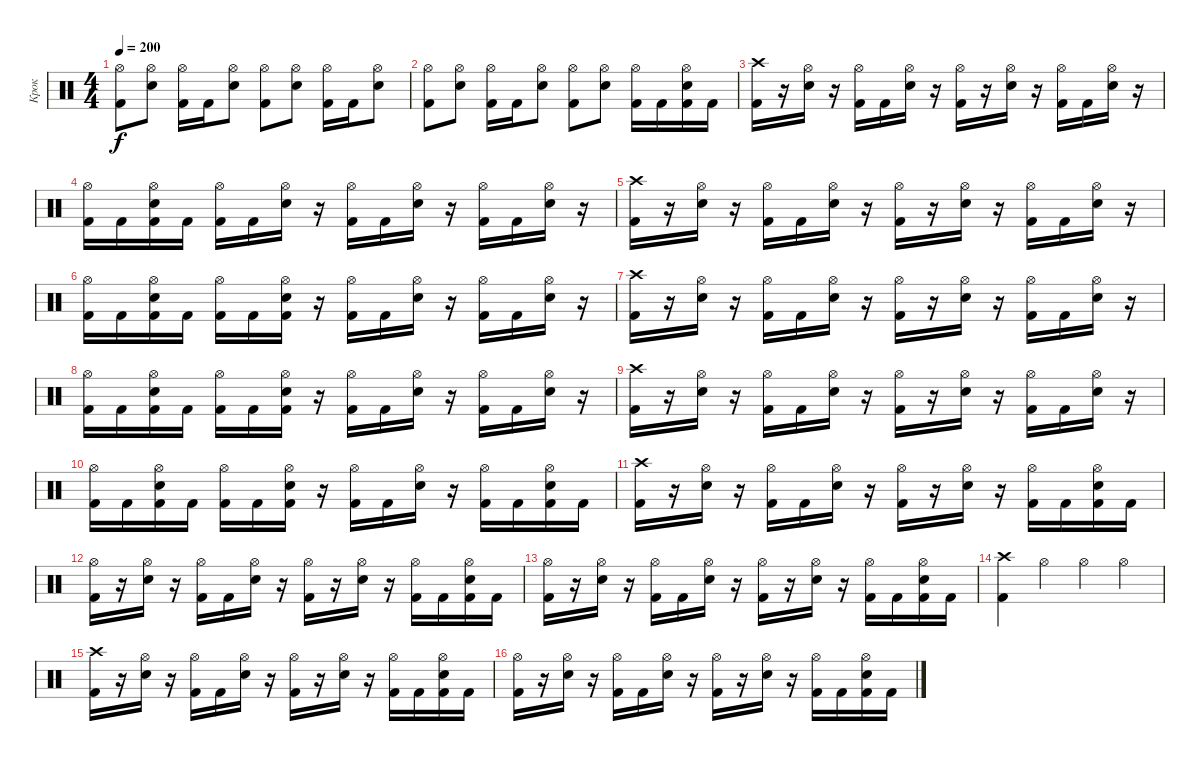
\track ("Крок" "Крок") {instrument percussion}
\staff {score}
\articulation defaults
\ts (4 4)
\tempo 200
\clef neutral
\ks c
("Hi-Hat (open)" "Kick (hit) 2").8{dy f} ("Hi-Hat (open)" "Electric Snare (hit)").8 ("Hi-Hat (open)" "Kick (hit) 2").16 "Kick (hit) 2".16 ("Hi-Hat (open)" "Electric Snare (hit)").8 ("Hi-Hat (open)" "Kick (hit) 2").8 ("Hi-Hat (open)" "Electric Snare (hit)").8 ("Hi-Hat (open)" "Kick (hit) 2").16 "Kick (hit) 2".16 ("Hi-Hat (open)" "Electric Snare (hit)").8 |
("Hi-Hat (open)" "Kick (hit) 2").8 ("Hi-Hat (open)" "Electric Snare (hit)").8 ("Hi-Hat (open)" "Kick (hit) 2").16 "Kick (hit) 2".16 ("Hi-Hat (open)" "Electric Snare (hit)").8 ("Hi-Hat (open)" "Kick (hit) 2").8 ("Hi-Hat (open)" "Electric Snare (hit)").8 ("Hi-Hat (open)" "Kick (hit) 2").16 "Kick (hit) 2".16 ("Hi-Hat (open)" "Kick (hit) 2" "Electric Snare (hit)").16 "Kick (hit) 2".16 |
("Kick (hit) 2" "Crash high (hit)").16 r.16 ("Electric Snare (hit)" "Hi-Hat (open)").16 r.16 ("Kick (hit) 2" "Hi-Hat (open)").16 "Kick (hit) 2".16 ("Electric Snare (hit)" "Hi-Hat (open)").16 r.16 ("Kick (hit) 2" "Hi-Hat (open)").16 r.16 ("Electric Snare (hit)" "Hi-Hat (open)").16 r.16 ("Kick (hit) 2" "Hi-Hat (open)").16 "Kick (hit) 2".16 ("Electric Snare (hit)" "Hi-Hat (open)").16 r.16 |
("Kick (hit) 2" "Hi-Hat (open)").16 "Kick (hit) 2".16 ("Kick (hit) 2" "Electric Snare (hit)" "Hi-Hat (open)").16 "Kick (hit) 2".16 ("Kick (hit) 2" "Hi-Hat (open)").16 "Kick (hit) 2".16 ("Electric Snare (hit)" "Hi-Hat (open)").16 r.16 ("Kick (hit) 2" "Hi-Hat (open)").16 "Kick (hit) 2".16 ("Electric Snare (hit)" "Hi-Hat (open)").16 r.16 ("Kick (hit) 2" "Hi-Hat (open)").16 "Kick (hit) 2".16 ("Electric Snare (hit)" "Hi-Hat (open)").16 r.16 |
("Kick (hit) 2" "Crash high (hit)").16 r.16 ("Electric Snare (hit)" "Hi-Hat (open)").16 r.16 ("Kick (hit) 2" "Hi-Hat (open)").16 "Kick (hit) 2".16 ("Electric Snare (hit)" "Hi-Hat (open)").16 r.16 ("Kick (hit) 2" "Hi-Hat (open)").16 r.16 ("Electric Snare (hit)" "Hi-Hat (open)").16 r.16 ("Kick (hit) 2" "Hi-Hat (open)").16 "Kick (hit) 2".16 ("Electric Snare (hit)" "Hi-Hat (open)").16 r.16 |
("Kick (hit) 2" "Hi-Hat (open)").16 "Kick (hit) 2".16 ("Kick (hit) 2" "Electric Snare (hit)" "Hi-Hat (open)").16 "Kick (hit) 2".16 ("Kick (hit) 2" "Hi-Hat (open)").16 "Kick (hit) 2".16 ("Kick (hit) 2" "Electric Snare (hit)" "Hi-Hat (open)").16 r.16 ("Kick (hit) 2" "Hi-Hat (open)").16 "Kick (hit) 2".16 ("Electric Snare (hit)" "Hi-Hat (open)").16 r.16 ("Kick (hit) 2" "Hi-Hat (open)").16 "Kick (hit) 2".16 ("Electric Snare (hit)" "Hi-Hat (open)").16 r.16 |
("Kick (hit) 2" "Crash high (hit)").16 r.16 ("Electric Snare (hit)" "Hi-Hat (open)").16 r.16 ("Kick (hit) 2" "Hi-Hat (open)").16 "Kick (hit) 2".16 ("Electric Snare (hit)" "Hi-Hat (open)").16 r.16 ("Kick (hit) 2" "Hi-Hat (open)").16 r.16 ("Electric Snare (hit)" "Hi-Hat (open)").16 r.16 ("Kick (hit) 2" "Hi-Hat (open)").16 "Kick (hit) 2".16 ("Electric Snare (hit)" "Hi-Hat (open)").16 r.16 |
("Kick (hit) 2" "Hi-Hat (open)").16 "Kick (hit) 2".16 ("Kick (hit) 2" "Electric Snare (hit)" "Hi-Hat (open)").16 "Kick (hit) 2".16 ("Kick (hit) 2" "Hi-Hat (open)").16 "Kick (hit) 2".16 ("Kick (hit) 2" "Electric Snare (hit)" "Hi-Hat (open)").16 r.16 ("Kick (hit) 2" "Hi-Hat (open)").16 "Kick (hit) 2".16 ("Electric Snare (hit)" "Hi-Hat (open)").16 r.16 ("Kick (hit) 2" "Hi-Hat (open)").16 "Kick (hit) 2".16 ("Electric Snare (hit)" "Hi-Hat (open)").16 r.16 |
("Kick (hit) 2" "Crash high (hit)").16 r.16 ("Electric Snare (hit)" "Hi-Hat (open)").16 r.16 ("Kick (hit) 2" "Hi-Hat (open)").16 "Kick (hit) 2".16 ("Electric Snare (hit)" "Hi-Hat (open)").16 r.16 ("Kick (hit) 2" "Hi-Hat (open)").16 r.16 ("Electric Snare (hit)" "Hi-Hat (open)").16 r.16 ("Kick (hit) 2" "Hi-Hat (open)").16 "Kick (hit) 2".16 ("Electric Snare (hit)" "Hi-Hat (open)").16 r.16 |
("Kick (hit) 2" "Hi-Hat (open)").16 "Kick (hit) 2".16 ("Kick (hit) 2" "Electric Snare (hit)" "Hi-Hat (open)").16 "Kick (hit) 2".16 ("Kick (hit) 2" "Hi-Hat (open)").16 "Kick (hit) 2".16 ("Kick (hit) 2" "Electric Snare (hit)" "Hi-Hat (open)").16 r.16 ("Kick (hit) 2" "Hi-Hat (open)").16 "Kick (hit) 2".16 ("Electric Snare (hit)" "Hi-Hat (open)").16 r.16 ("Kick (hit) 2" "Hi-Hat (open)").16 "Kick (hit) 2".16 ("Kick (hit) 2" "Electric Snare (hit)" "Hi-Hat (open)").16 "Kick (hit) 2".16 |
("Kick (hit) 2" "Crash high (hit)").16 r.16 ("Electric Snare (hit)" "Hi-Hat (open)").16 r.16 ("Kick (hit) 2" "Hi-Hat (open)").16 "Kick (hit) 2".16 ("Electric Snare (hit)" "Hi-Hat (open)").16 r.16 ("Kick (hit) 2" "Hi-Hat (open)").16 r.16 ("Electric Snare (hit)" "Hi-Hat (open)").16 r.16 ("Kick (hit) 2" "Hi-Hat (open)").16 "Kick (hit) 2".16 ("Kick (hit) 2" "Electric Snare (hit)" "Hi-Hat (open)").16 "Kick (hit) 2".16 |
("Kick (hit) 2" "Hi-Hat (open)").16 r.16 ("Electric Snare (hit)" "Hi-Hat (open)").16 r.16 ("Kick (hit) 2" "Hi-Hat (open)").16 "Kick (hit) 2".16 ("Electric Snare (hit)" "Hi-Hat (open)").16 r.16 ("Kick (hit) 2" "Hi-Hat (open)").16 r.16 ("Electric Snare (hit)" "Hi-Hat (open)").16 r.16 ("Kick (hit) 2" "Hi-Hat (open)").16 "Kick (hit) 2".16 ("Kick (hit) 2" "Electric Snare (hit)" "Hi-Hat (open)").16 "Kick (hit) 2".16 |
("Kick (hit) 2" "Hi-Hat (open)").16 r.16 ("Electric Snare (hit)" "Hi-Hat (open)").16 r.16 ("Kick (hit) 2" "Hi-Hat (open)").16 "Kick (hit) 2".16 ("Electric Snare (hit)" "Hi-Hat (open)").16 r.16 ("Kick (hit) 2" "Hi-Hat (open)").16 r.16 ("Electric Snare (hit)" "Hi-Hat (open)").16 r.16 ("Kick (hit) 2" "Hi-Hat (open)").16 "Kick (hit) 2".16 ("Kick (hit) 2" "Electric Snare (hit)" "Hi-Hat (open)").16 "Kick (hit) 2".16 |
("Kick (hit) 2" "Crash high (hit)").4 "Hi-Hat (open)".4 "Hi-Hat (open)".4 "Hi-Hat (open)".4 |
("Kick (hit) 2" "Crash high (hit)").16 r.16 ("Electric Snare (hit)" "Hi-Hat (open)").16 r.16 ("Kick (hit) 2" "Hi-Hat (open)").16 "Kick (hit) 2".16 ("Electric Snare (hit)" "Hi-Hat (open)").16 r.16 ("Kick (hit) 2" "Hi-Hat (open)").16 r.16 ("Electric Snare (hit)" "Hi-Hat (open)").16 r.16 ("Kick (hit) 2" "Hi-Hat (open)").16 "Kick (hit) 2".16 ("Kick (hit) 2" "Electric Snare (hit)" "Hi-Hat (open)").16 "Kick (hit) 2".16 |
("Kick (hit) 2" "Hi-Hat (open)").16 r.16 ("Electric Snare (hit)" "Hi-Hat (open)").16 r.16 ("Kick (hit) 2" "Hi-Hat (open)").16 "Kick (hit) 2".16 ("Electric Snare (hit)" "Hi-Hat (open)").16 r.16 ("Kick (hit) 2" "Hi-Hat (open)").16 r.16 ("Electric Snare (hit)" "Hi-Hat (open)").16 r.16 ("Kick (hit) 2" "Hi-Hat (open)").16 "Kick (hit) 2".16 ("Kick (hit) 2" "Electric Snare (hit)" "Hi-Hat (open)").16 "Kick (hit) 2".16
